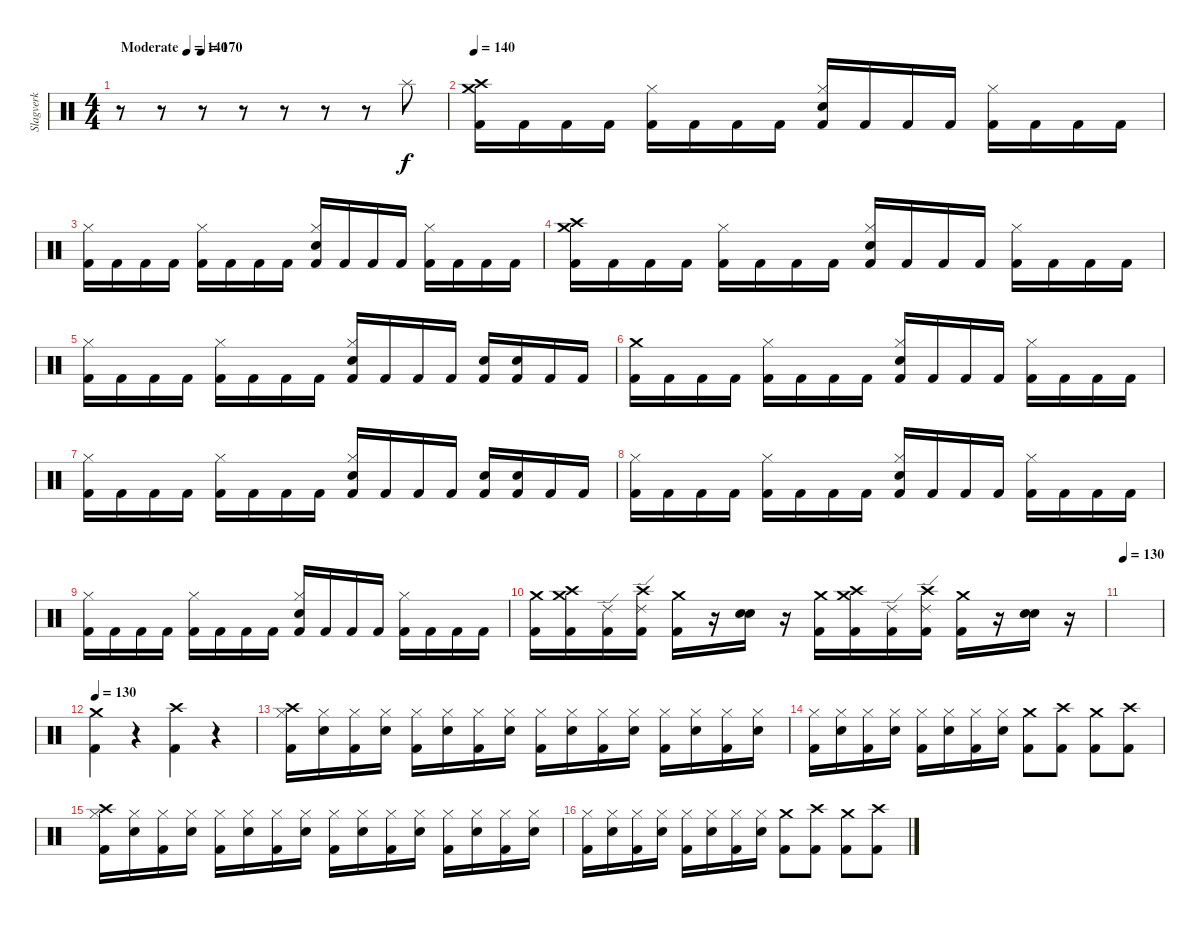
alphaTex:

\track ("Slagverk" "Slagverk") {instrument percussion}
\staff {score}
\articulation defaults
\ts (4 4)
\tempo (140 "Moderate")
\tempo 180
\tempo (170 0.25)
\tempo (140 "Moderate")
\clef neutral
\ks c
r.8{dy f} r.8 r.8 r.8 r.8 r.8 r.8 "Splash (hit)".8 |
\tempo 140
("Crash medium (hit)" "Crash high (hit)" "Kick (hit) 2").16 "Kick (hit) 2".16 "Kick (hit) 2".16 "Kick (hit) 2".16 ("Hi-Hat (closed)" "Kick (hit) 2").16 "Kick (hit) 2".16 "Kick (hit) 2".16 "Kick (hit) 2".16 ("Electric Snare (hit)" "Hi-Hat (closed)" "Kick (hit) 2").16 "Kick (hit) 2".16 "Kick (hit) 2".16 "Kick (hit) 2".16 ("Hi-Hat (closed)" "Kick (hit) 2").16 "Kick (hit) 2".16 "Kick (hit) 2".16 "Kick (hit) 2".16 |
("Hi-Hat (closed)" "Kick (hit) 2").16 "Kick (hit) 2".16 "Kick (hit) 2".16 "Kick (hit) 2".16 ("Hi-Hat (closed)" "Kick (hit) 2").16 "Kick (hit) 2".16 "Kick (hit) 2".16 "Kick (hit) 2".16 ("Electric Snare (hit)" "Hi-Hat (closed)" "Kick (hit) 2").16 "Kick (hit) 2".16 "Kick (hit) 2".16 "Kick (hit) 2".16 ("Hi-Hat (closed)" "Kick (hit) 2").16 "Kick (hit) 2".16 "Kick (hit) 2".16 "Kick (hit) 2".16 |
("Crash medium (hit)" "Crash high (hit)" "Kick (hit) 2").16 "Kick (hit) 2".16 "Kick (hit) 2".16 "Kick (hit) 2".16 ("Hi-Hat (closed)" "Kick (hit) 2").16 "Kick (hit) 2".16 "Kick (hit) 2".16 "Kick (hit) 2".16 ("Electric Snare (hit)" "Hi-Hat (closed)" "Kick (hit) 2").16 "Kick (hit) 2".16 "Kick (hit) 2".16 "Kick (hit) 2".16 ("Hi-Hat (closed)" "Kick (hit) 2").16 "Kick (hit) 2".16 "Kick (hit) 2".16 "Kick (hit) 2".16 |
("Hi-Hat (closed)" "Kick (hit) 2").16 "Kick (hit) 2".16 "Kick (hit) 2".16 "Kick (hit) 2".16 ("Hi-Hat (closed)" "Kick (hit) 2").16 "Kick (hit) 2".16 "Kick (hit) 2".16 "Kick (hit) 2".16 ("Electric Snare (hit)" "Hi-Hat (closed)" "Kick (hit) 2").16 "Kick (hit) 2".16 "Kick (hit) 2".16 "Kick (hit) 2".16 ("Electric Snare (hit)" "Kick (hit) 2").16 ("Electric Snare (hit)" "Kick (hit) 2").16 "Kick (hit) 2".16 "Kick (hit) 2".16 |
("Crash medium (hit)" "Kick (hit) 2").16 "Kick (hit) 2".16 "Kick (hit) 2".16 "Kick (hit) 2".16 ("Hi-Hat (closed)" "Kick (hit) 2").16 "Kick (hit) 2".16 "Kick (hit) 2".16 "Kick (hit) 2".16 ("Electric Snare (hit)" "Hi-Hat (closed)" "Kick (hit) 2").16 "Kick (hit) 2".16 "Kick (hit) 2".16 "Kick (hit) 2".16 ("Hi-Hat (closed)" "Kick (hit) 2").16 "Kick (hit) 2".16 "Kick (hit) 2".16 "Kick (hit) 2".16 |
("Hi-Hat (closed)" "Kick (hit) 2").16 "Kick (hit) 2".16 "Kick (hit) 2".16 "Kick (hit) 2".16 ("Hi-Hat (closed)" "Kick (hit) 2").16 "Kick (hit) 2".16 "Kick (hit) 2".16 "Kick (hit) 2".16 ("Electric Snare (hit)" "Hi-Hat (closed)" "Kick (hit) 2").16 "Kick (hit) 2".16 "Kick (hit) 2".16 "Kick (hit) 2".16 ("Electric Snare (hit)" "Kick (hit) 2").16 ("Electric Snare (hit)" "Kick (hit) 2").16 "Kick (hit) 2".16 "Kick (hit) 2".16 |
("Hi-Hat (closed)" "Kick (hit) 2").16 "Kick (hit) 2".16 "Kick (hit) 2".16 "Kick (hit) 2".16 ("Hi-Hat (closed)" "Kick (hit) 2").16 "Kick (hit) 2".16 "Kick (hit) 2".16 "Kick (hit) 2".16 ("Electric Snare (hit)" "Hi-Hat (closed)" "Kick (hit) 2").16 "Kick (hit) 2".16 "Kick (hit) 2".16 "Kick (hit) 2".16 ("Hi-Hat (closed)" "Kick (hit) 2").16 "Kick (hit) 2".16 "Kick (hit) 2".16 "Kick (hit) 2".16 |
("Hi-Hat (closed)" "Kick (hit) 2").16 "Kick (hit) 2".16 "Kick (hit) 2".16 "Kick (hit) 2".16 ("Hi-Hat (closed)" "Kick (hit) 2").16 "Kick (hit) 2".16 "Kick (hit) 2".16 "Kick (hit) 2".16 ("Electric Snare (hit)" "Hi-Hat (closed)" "Kick (hit) 2").16 "Kick (hit) 2".16 "Kick (hit) 2".16 "Kick (hit) 2".16 ("Hi-Hat (closed)" "Kick (hit) 2").16 "Kick (hit) 2".16 "Kick (hit) 2".16 "Kick (hit) 2".16 |
("Crash medium (hit)" "Kick (hit) 2").16 ("Crash high (hit)" "Crash medium (hit)" "Kick (hit) 2").16 ("Ride (edge) 2" "Kick (hit) 2").16 ("Crash high (hit)" "Ride (edge) 2" "Kick (hit) 2").16 ("Crash medium (hit)" "Kick (hit) 2").16 r.16 ("Electric Snare (hit)" "Electric Snare (hit)").16 r.16 ("Crash medium (hit)" "Kick (hit) 2").16 ("Crash high (hit)" "Crash medium (hit)" "Kick (hit) 2").16 ("Ride (edge) 2" "Kick (hit) 2").16 ("Crash high (hit)" "Ride (edge) 2" "Kick (hit) 2").16 ("Crash medium (hit)" "Kick (hit) 2").16 r.16 ("Electric Snare (hit)" "Electric Snare (hit)").16 r.16 |
\tempo 130
|
\tempo 130
("Crash medium (hit)" "Kick (hit) 2").4 r.4 ("Crash high (hit)" "Kick (hit) 2").4 r.4 |
("Crash high (hit)" "Hi-Hat (closed)" "Kick (hit) 2").16 ("Electric Snare (hit)" "Hi-Hat (closed)").16 ("Hi-Hat (closed)" "Kick (hit) 2").16 ("Electric Snare (hit)" "Hi-Hat (closed)").16 ("Hi-Hat (closed)" "Kick (hit) 2").16 ("Electric Snare (hit)" "Hi-Hat (closed)").16 ("Hi-Hat (closed)" "Kick (hit) 2").16 ("Electric Snare (hit)" "Hi-Hat (closed)").16 ("Hi-Hat (closed)" "Kick (hit) 2").16 ("Electric Snare (hit)" "Hi-Hat (closed)").16 ("Hi-Hat (closed)" "Kick (hit) 2").16 ("Electric Snare (hit)" "Hi-Hat (closed)").16 ("Hi-Hat (closed)" "Kick (hit) 2").16 ("Electric Snare (hit)" "Hi-Hat (closed)").16 ("Hi-Hat (closed)" "Kick (hit) 2").16 ("Electric Snare (hit)" "Hi-Hat (closed)").16 |
("Hi-Hat (closed)" "Kick (hit) 2").16 ("Electric Snare (hit)" "Hi-Hat (closed)").16 ("Hi-Hat (closed)" "Kick (hit) 2").16 ("Electric Snare (hit)" "Hi-Hat (closed)").16 ("Hi-Hat (closed)" "Kick (hit) 2").16 ("Electric Snare (hit)" "Hi-Hat (closed)").16 ("Hi-Hat (closed)" "Kick (hit) 2").16 ("Electric Snare (hit)" "Hi-Hat (closed)").16 ("Crash medium (hit)" "Kick (hit) 2").8 ("Crash high (hit)" "Kick (hit) 2").8 ("Crash medium (hit)" "Kick (hit) 2").8 ("Crash high (hit)" "Kick (hit) 2").8 |
("Crash high (hit)" "Hi-Hat (closed)" "Kick (hit) 2").16 ("Electric Snare (hit)" "Hi-Hat (closed)").16 ("Hi-Hat (closed)" "Kick (hit) 2").16 ("Electric Snare (hit)" "Hi-Hat (closed)").16 ("Hi-Hat (closed)" "Kick (hit) 2").16 ("Electric Snare (hit)" "Hi-Hat (closed)").16 ("Hi-Hat (closed)" "Kick (hit) 2").16 ("Electric Snare (hit)" "Hi-Hat (closed)").16 ("Hi-Hat (closed)" "Kick (hit) 2").16 ("Electric Snare (hit)" "Hi-Hat (closed)").16 ("Hi-Hat (closed)" "Kick (hit) 2").16 ("Electric Snare (hit)" "Hi-Hat (closed)").16 ("Hi-Hat (closed)" "Kick (hit) 2").16 ("Electric Snare (hit)" "Hi-Hat (closed)").16 ("Hi-Hat (closed)" "Kick (hit) 2").16 ("Electric Snare (hit)" "Hi-Hat (closed)").16 |
("Hi-Hat (closed)" "Kick (hit) 2").16 ("Electric Snare (hit)" "Hi-Hat (closed)").16 ("Hi-Hat (closed)" "Kick (hit) 2").16 ("Electric Snare (hit)" "Hi-Hat (closed)").16 ("Hi-Hat (closed)" "Kick (hit) 2").16 ("Electric Snare (hit)" "Hi-Hat (closed)").16 ("Hi-Hat (closed)" "Kick (hit) 2").16 ("Electric Snare (hit)" "Hi-Hat (closed)").16 ("Crash medium (hit)" "Kick (hit) 2").8 ("Crash high (hit)" "Kick (hit) 2").8 ("Crash medium (hit)" "Kick (hit) 2").8 ("Crash high (hit)" "Kick (hit) 2").8
